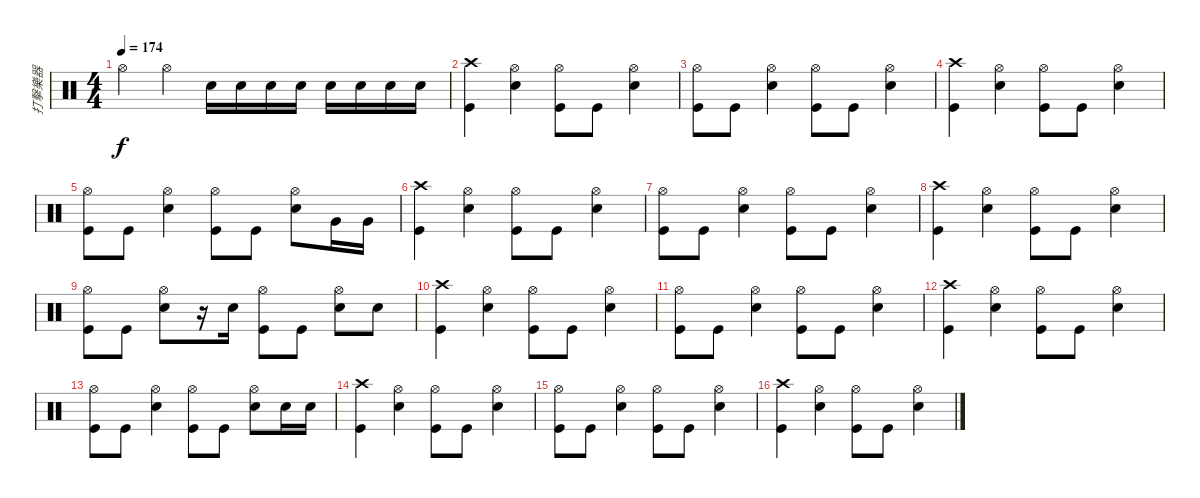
\track ("打擊樂器" "打擊樂器") {instrument percussion}
\staff {score}
\articulation defaults
\ts (4 4)
\tempo 174
\clef neutral
\ks c "Hi-Hat (open)".4{dy f} "Hi-Hat (open)".4 "Snare (hit) 2".16 "Snare (hit) 2".16 "Snare (hit) 2".16 "Snare (hit) 2".16 "Snare (hit) 2".16 "Snare (hit) 2".16 "Snare (hit) 2".16 "Snare (hit) 2".16
|
("Crash high (hit)" "Kick (hit)").4 ("Hi-Hat (open)" "Snare (hit) 2").4 ("Kick (hit)" "Hi-Hat (open)").8 "Kick (hit)".8 ("Hi-Hat (open)" "Snare (hit) 2").4 |
("Hi-Hat (open)" "Kick (hit)").8 "Kick (hit)".8 ("Hi-Hat (open)" "Snare (hit) 2").4 ("Hi-Hat (open)" "Kick (hit)").8 "Kick (hit)".8 ("Hi-Hat (open)" "Snare (hit) 2").4 |
("Crash high (hit)" "Kick (hit)").4 ("Hi-Hat (open)" "Snare (hit) 2").4 ("Kick (hit)" "Hi-Hat (open)").8 "Kick (hit)".8 ("Hi-Hat (open)" "Snare (hit) 2").4 |
("Hi-Hat (open)" "Kick (hit)").8 "Kick (hit)".8 ("Hi-Hat (open)" "Snare (hit) 2").4 ("Hi-Hat (open)" "Kick (hit)").8 "Kick (hit)".8 ("Hi-Hat (open)" "Snare (hit) 2").8 "Very Low Tom (hit)".16 "Very Low Tom (hit)".16 |
("Crash high (hit)" "Kick (hit)").4 ("Hi-Hat (open)" "Snare (hit) 2").4 ("Kick (hit)" "Hi-Hat (open)").8 "Kick (hit)".8 ("Hi-Hat (open)" "Snare (hit) 2").4 |
("Hi-Hat (open)" "Kick (hit)").8 "Kick (hit)".8 ("Hi-Hat (open)" "Snare (hit) 2").4 ("Hi-Hat (open)" "Kick (hit)").8 "Kick (hit)".8 ("Hi-Hat (open)" "Snare (hit) 2").4 |
("Crash high (hit)" "Kick (hit)").4 ("Hi-Hat (open)" "Snare (hit) 2").4 ("Kick (hit)" "Hi-Hat (open)").8 "Kick (hit)".8 ("Hi-Hat (open)" "Snare (hit) 2").4 |
("Hi-Hat (open)" "Kick (hit)").8 "Kick (hit)".8 ("Hi-Hat (open)" "Snare (hit) 2").8 r.16 "Snare (hit) 2".16 ("Hi-Hat (open)" "Kick (hit)").8 "Kick (hit)".8 ("Hi-Hat (open)" "Snare (hit) 2").8 "Snare (hit) 2".8 |
("Crash high (hit)" "Kick (hit)").4 ("Hi-Hat (open)" "Snare (hit) 2").4 ("Kick (hit)" "Hi-Hat (open)").8 "Kick (hit)".8 ("Hi-Hat (open)" "Snare (hit) 2").4 |
("Hi-Hat (open)" "Kick (hit)").8 "Kick (hit)".8 ("Hi-Hat (open)" "Snare (hit) 2").4 ("Hi-Hat (open)" "Kick (hit)").8 "Kick (hit)".8 ("Hi-Hat (open)" "Snare (hit) 2").4 |
("Crash high (hit)" "Kick (hit)").4 ("Hi-Hat (open)" "Snare (hit) 2").4 ("Kick (hit)" "Hi-Hat (open)").8 "Kick (hit)".8 ("Hi-Hat (open)" "Snare (hit) 2").4 |
("Hi-Hat (open)" "Kick (hit)").8 "Kick (hit)".8 ("Hi-Hat (open)" "Snare (hit) 2").4 ("Hi-Hat (open)" "Kick (hit)").8 "Kick (hit)".8 ("Hi-Hat (open)" "Snare (hit) 2").8 "Snare (hit) 2".16 "Snare (hit) 2".16 |
("Crash high (hit)" "Kick (hit)").4 ("Hi-Hat (open)" "Snare (hit) 2").4 ("Kick (hit)" "Hi-Hat (open)").8 "Kick (hit)".8 ("Hi-Hat (open)" "Snare (hit) 2").4 |
("Hi-Hat (open)" "Kick (hit)").8 "Kick (hit)".8 ("Hi-Hat (open)" "Snare (hit) 2").4 ("Hi-Hat (open)" "Kick (hit)").8 "Kick (hit)".8 ("Hi-Hat (open)" "Snare (hit) 2").4 |
("Crash high (hit)" "Kick (hit)").4 ("Hi-Hat (open)" "Snare (hit) 2").4 ("Kick (hit)" "Hi-Hat (open)").8 "Kick (hit)".8 ("Hi-Hat (open)" "Snare (hit) 2").4
